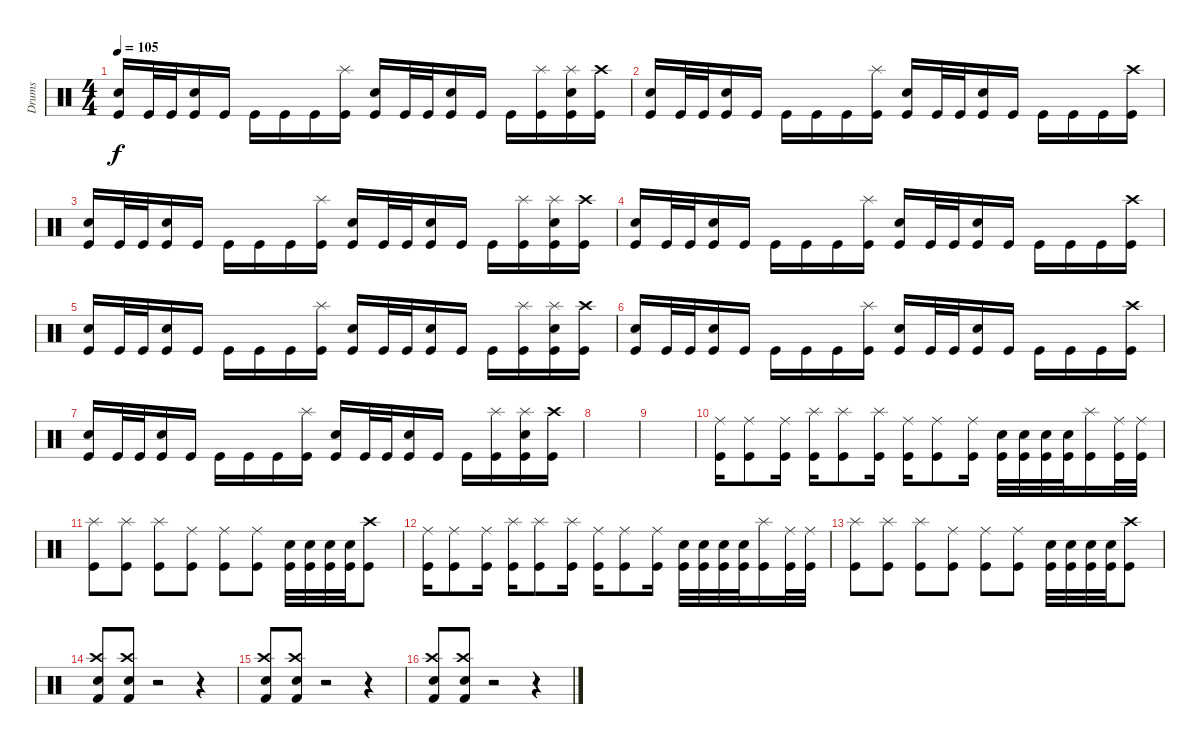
\track ("Drums" "Drums") {instrument percussion}
\staff {score}
\articulation defaults
\ts (4 4)
\tempo 105
\clef neutral
\ks c
("Snare (hit) 2" "Kick (hit)").16{dy f} "Kick (hit)".32 "Kick (hit)".32 ("Snare (hit) 2" "Kick (hit)").16 "Kick (hit)".16 "Kick (hit)".16 "Kick (hit)".16 "Kick (hit)".16 ("Splash (hit)" "Kick (hit)").16 ("Snare (hit) 2" "Kick (hit)").16 "Kick (hit)".32 "Kick (hit)".32 ("Snare (hit) 2" "Kick (hit)").16 "Kick (hit)".16 "Kick (hit)".16 ("Splash (hit)" "Kick (hit)").16 ("Splash (hit)" "Snare (hit) 2" "Kick (hit)").16 ("Crash high (hit)" "Kick (hit)").16 |
("Snare (hit) 2" "Kick (hit)").16 "Kick (hit)".32 "Kick (hit)".32 ("Snare (hit) 2" "Kick (hit)").16 "Kick (hit)".16 "Kick (hit)".16 "Kick (hit)".16 "Kick (hit)".16 ("Splash (hit)" "Kick (hit)").16 ("Snare (hit) 2" "Kick (hit)").16 "Kick (hit)".32 "Kick (hit)".32 ("Snare (hit) 2" "Kick (hit)").16 "Kick (hit)".16 "Kick (hit)".16 "Kick (hit)".16 "Kick (hit)".16 ("Crash high (hit)" "Kick (hit)").16 |
("Snare (hit) 2" "Kick (hit)").16 "Kick (hit)".32 "Kick (hit)".32 ("Snare (hit) 2" "Kick (hit)").16 "Kick (hit)".16 "Kick (hit)".16 "Kick (hit)".16 "Kick (hit)".16 ("Splash (hit)" "Kick (hit)").16 ("Snare (hit) 2" "Kick (hit)").16 "Kick (hit)".32 "Kick (hit)".32 ("Snare (hit) 2" "Kick (hit)").16 "Kick (hit)".16 "Kick (hit)".16 ("Splash (hit)" "Kick (hit)").16 ("Splash (hit)" "Snare (hit) 2" "Kick (hit)").16 ("Crash high (hit)" "Kick (hit)").16 |
("Snare (hit) 2" "Kick (hit)").16 "Kick (hit)".32 "Kick (hit)".32 ("Snare (hit) 2" "Kick (hit)").16 "Kick (hit)".16 "Kick (hit)".16 "Kick (hit)".16 "Kick (hit)".16 ("Splash (hit)" "Kick (hit)").16 ("Snare (hit) 2" "Kick (hit)").16 "Kick (hit)".32 "Kick (hit)".32 ("Snare (hit) 2" "Kick (hit)").16 "Kick (hit)".16 "Kick (hit)".16 "Kick (hit)".16 "Kick (hit)".16 ("Crash high (hit)" "Kick (hit)").16 |
("Snare (hit) 2" "Kick (hit)").16 "Kick (hit)".32 "Kick (hit)".32 ("Snare (hit) 2" "Kick (hit)").16 "Kick (hit)".16 "Kick (hit)".16 "Kick (hit)".16 "Kick (hit)".16 ("Splash (hit)" "Kick (hit)").16 ("Snare (hit) 2" "Kick (hit)").16 "Kick (hit)".32 "Kick (hit)".32 ("Snare (hit) 2" "Kick (hit)").16 "Kick (hit)".16 "Kick (hit)".16 ("Splash (hit)" "Kick (hit)").16 ("Splash (hit)" "Snare (hit) 2" "Kick (hit)").16 ("Crash high (hit)" "Kick (hit)").16 |
("Snare (hit) 2" "Kick (hit)").16 "Kick (hit)".32 "Kick (hit)".32 ("Snare (hit) 2" "Kick (hit)").16 "Kick (hit)".16 "Kick (hit)".16 "Kick (hit)".16 "Kick (hit)".16 ("Splash (hit)" "Kick (hit)").16 ("Snare (hit) 2" "Kick (hit)").16 "Kick (hit)".32 "Kick (hit)".32 ("Snare (hit) 2" "Kick (hit)").16 "Kick (hit)".16 "Kick (hit)".16 "Kick (hit)".16 "Kick (hit)".16 ("Crash high (hit)" "Kick (hit)").16 |
("Snare (hit) 2" "Kick (hit)").16 "Kick (hit)".32 "Kick (hit)".32 ("Snare (hit) 2" "Kick (hit)").16 "Kick (hit)".16 "Kick (hit)".16 "Kick (hit)".16 "Kick (hit)".16 ("Splash (hit)" "Kick (hit)").16 ("Snare (hit) 2" "Kick (hit)").16 "Kick (hit)".32 "Kick (hit)".32 ("Snare (hit) 2" "Kick (hit)").16 "Kick (hit)".16 "Kick (hit)".16 ("Splash (hit)" "Kick (hit)").16 ("Splash (hit)" "Snare (hit) 2" "Kick (hit)").16 ("Crash high (hit)" "Kick (hit)").16 |
|
|
("Ride (middle)" "Kick (hit)").16 ("Ride (middle)" "Kick (hit)").8 ("Ride (middle)" "Kick (hit)").16 ("Splash (hit)" "Kick (hit)").16 ("Splash (hit)" "Kick (hit)").8 ("Splash (hit)" "Kick (hit)").16 ("Ride (middle)" "Kick (hit)").16 ("Ride (middle)" "Kick (hit)").8 ("Ride (middle)" "Kick (hit)").16 ("Snare (hit) 2" "Kick (hit)").32 ("Snare (hit) 2" "Kick (hit)").32 ("Snare (hit) 2" "Kick (hit)").32 ("Snare (hit) 2" "Kick (hit)").32 ("Splash (hit)" "Kick (hit)").16 ("Ride (middle)" "Kick (hit)").32 ("Ride (middle)" "Kick (hit)").32 |
("Splash (hit)" "Kick (hit)").8 ("Splash (hit)" "Kick (hit)").8 ("Splash (hit)" "Kick (hit)").8 ("Ride (middle)" "Kick (hit)").8 ("Ride (middle)" "Kick (hit)").8 ("Ride (middle)" "Kick (hit)").8 ("Snare (hit) 2" "Kick (hit)").32 ("Snare (hit) 2" "Kick (hit)").32 ("Snare (hit) 2" "Kick (hit)").32 ("Snare (hit) 2" "Kick (hit)").32 ("Crash high (hit)" "Kick (hit)").8 |
("Ride (middle)" "Kick (hit)").16 ("Ride (middle)" "Kick (hit)").8 ("Ride (middle)" "Kick (hit)").16 ("Splash (hit)" "Kick (hit)").16 ("Splash (hit)" "Kick (hit)").8 ("Splash (hit)" "Kick (hit)").16 ("Ride (middle)" "Kick (hit)").16 ("Ride (middle)" "Kick (hit)").8 ("Ride (middle)" "Kick (hit)").16 ("Snare (hit) 2" "Kick (hit)").32 ("Snare (hit) 2" "Kick (hit)").32 ("Snare (hit) 2" "Kick (hit)").32 ("Snare (hit) 2" "Kick (hit)").32 ("Splash (hit)" "Kick (hit)").16 ("Ride (middle)" "Kick (hit)").32 ("Ride (middle)" "Kick (hit)").32 |
("Splash (hit)" "Kick (hit)").8 ("Splash (hit)" "Kick (hit)").8 ("Splash (hit)" "Kick (hit)").8 ("Ride (middle)" "Kick (hit)").8 ("Ride (middle)" "Kick (hit)").8 ("Ride (middle)" "Kick (hit)").8 ("Snare (hit) 2" "Kick (hit)").32 ("Snare (hit) 2" "Kick (hit)").32 ("Snare (hit) 2" "Kick (hit)").32 ("Snare (hit) 2" "Kick (hit)").32 ("Crash high (hit)" "Kick (hit)").8 |
("Crash high (hit)" "Snare (hit) 2" "Kick (hit) 2").8 ("Crash high (hit)" "Snare (hit) 2" "Kick (hit) 2").8 r.2 r.4 |
("Crash high (hit)" "Snare (hit) 2" "Kick (hit) 2").8 ("Crash high (hit)" "Snare (hit) 2" "Kick (hit) 2").8 r.2 r.4 |
("Crash high (hit)" "Snare (hit) 2" "Kick (hit) 2").8 ("Crash high (hit)" "Snare (hit) 2" "Kick (hit) 2").8 r.2 r.4
